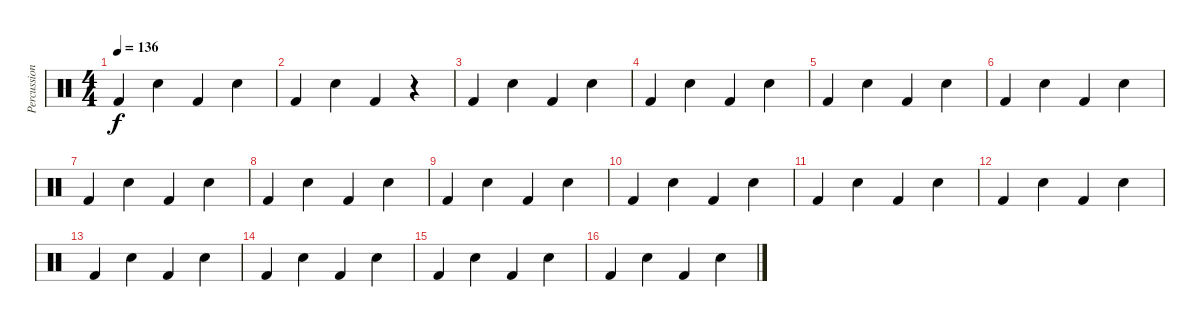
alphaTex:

\track ("Percussion" "Percussion") {instrument percussion}
\staff {score}
\articulation defaults
\ts (4 4)
\tempo 136
\clef neutral
\ks c "Kick (hit) 2".4{dy f} "Snare (hit) 2".4 "Kick (hit) 2".4 "Snare (hit) 2".4
|
"Kick (hit) 2".4 "Snare (hit) 2".4 "Kick (hit) 2".4 r.4 |
"Kick (hit) 2".4 "Snare (hit) 2".4 "Kick (hit) 2".4 "Snare (hit) 2".4 |
"Kick (hit) 2".4 "Snare (hit) 2".4 "Kick (hit) 2".4 "Snare (hit) 2".4 |
"Kick (hit) 2".4 "Snare (hit) 2".4 "Kick (hit) 2".4 "Snare (hit) 2".4 |
"Kick (hit) 2".4 "Snare (hit) 2".4 "Kick (hit) 2".4 "Snare (hit) 2".4 |
"Kick (hit) 2".4 "Snare (hit) 2".4 "Kick (hit) 2".4 "Snare (hit) 2".4 |
"Kick (hit) 2".4 "Snare (hit) 2".4 "Kick (hit) 2".4 "Snare (hit) 2".4 |
"Kick (hit) 2".4 "Snare (hit) 2".4 "Kick (hit) 2".4 "Snare (hit) 2".4 |
"Kick (hit) 2".4 "Snare (hit) 2".4 "Kick (hit) 2".4 "Snare (hit) 2".4 |
"Kick (hit) 2".4 "Snare (hit) 2".4 "Kick (hit) 2".4 "Snare (hit) 2".4 |
"Kick (hit) 2".4 "Snare (hit) 2".4 "Kick (hit) 2".4 "Snare (hit) 2".4 |
"Kick (hit) 2".4 "Snare (hit) 2".4 "Kick (hit) 2".4 "Snare (hit) 2".4 |
"Kick (hit) 2".4 "Snare (hit) 2".4 "Kick (hit) 2".4 "Snare (hit) 2".4 |
"Kick (hit) 2".4 "Snare (hit) 2".4 "Kick (hit) 2".4 "Snare (hit) 2".4 |
"Kick (hit) 2".4 "Snare (hit) 2".4 "Kick (hit) 2".4 "Snare (hit) 2".4
